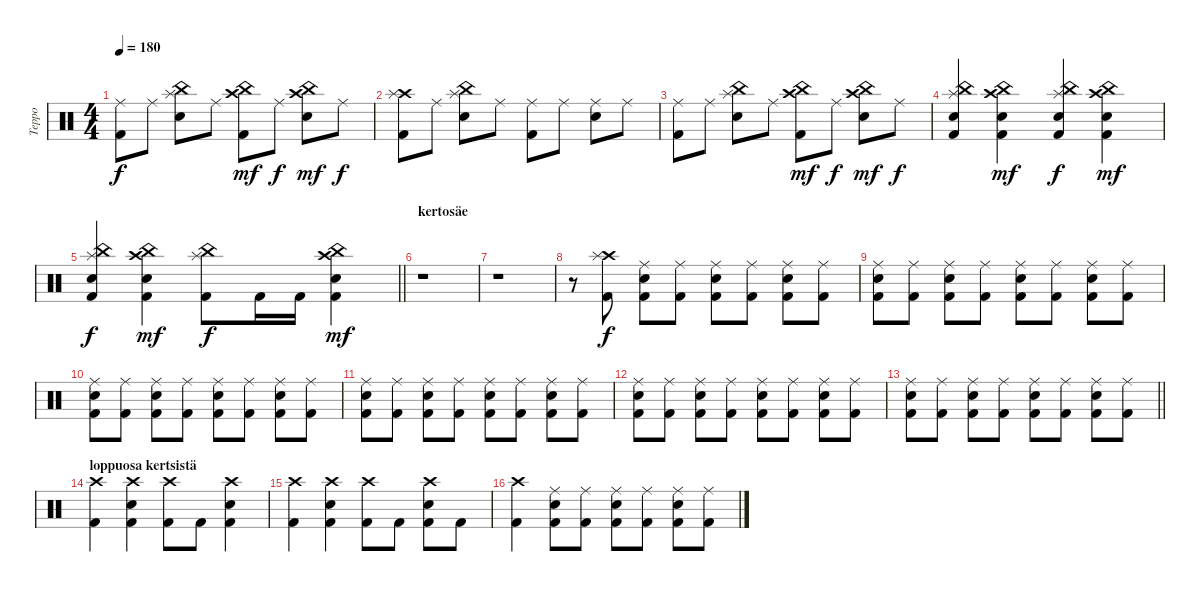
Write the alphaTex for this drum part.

\track ("Teppo" "Teppo") {instrument percussion}
\staff {score}
\articulation defaults
\ts (4 4)
\tempo 180
\clef neutral
\ks c
("Ride (middle)" "Kick (hit) 2").8{dy f} "Ride (middle)".8 ("China (hit)" "Splash (hit)" "Electric Snare (hit)").8 "Ride (middle)".8 ("China (hit)" "Crash high (hit)" "Kick (hit) 2").8{dy mf} "Ride (middle)".8{dy f} ("China (hit)" "Crash high (hit)" "Electric Snare (hit)").8{dy mf} "Ride (middle)".8{dy f} |
("Crash high (hit)" "Splash (hit)" "Kick (hit) 2").8 "Ride (middle)".8 ("China (hit)" "Splash (hit)" "Electric Snare (hit)").8 "Ride (middle)".8 ("Ride (middle)" "Kick (hit) 2").8 "Ride (middle)".8 ("Ride (middle)" "Electric Snare (hit)").8 "Ride (middle)".8 |
("Ride (middle)" "Kick (hit) 2").8 "Ride (middle)".8 ("China (hit)" "Splash (hit)" "Electric Snare (hit)").8 "Ride (middle)".8 ("China (hit)" "Crash high (hit)" "Kick (hit) 2").8{dy mf} "Ride (middle)".8{dy f} ("China (hit)" "Crash high (hit)" "Electric Snare (hit)").8{dy mf} "Ride (middle)".8{dy f} |
("China (hit)" "Splash (hit)" "Electric Snare (hit)" "Kick (hit) 2").4 ("China (hit)" "Crash high (hit)" "Electric Snare (hit)" "Kick (hit) 2").4{dy mf} ("China (hit)" "Splash (hit)" "Electric Snare (hit)" "Kick (hit) 2").4{dy f} ("China (hit)" "Crash high (hit)" "Electric Snare (hit)" "Kick (hit) 2").4{dy mf} |
\barLineRight lightlight
("China (hit)" "Splash (hit)" "Electric Snare (hit)" "Kick (hit) 2").4{dy f} ("China (hit)" "Crash high (hit)" "Electric Snare (hit)" "Kick (hit) 2").4{dy mf} ("China (hit)" "Splash (hit)" "Kick (hit) 2").8{dy f} "Kick (hit) 2".16 "Kick (hit) 2".16 ("China (hit)" "Crash high (hit)" "Electric Snare (hit)" "Kick (hit) 2").4{dy mf} |
\section ("" "kertosäe")
r.1 |
r.1 |
r.8 ("Crash high (hit)" "Splash (hit)" "Kick (hit) 2").8{dy f} ("Ride (middle)" "Electric Snare (hit)" "Kick (hit) 2").8 ("Ride (middle)" "Kick (hit) 2").8 ("Ride (middle)" "Electric Snare (hit)" "Kick (hit) 2").8 ("Ride (middle)" "Kick (hit) 2").8 ("Ride (middle)" "Electric Snare (hit)" "Kick (hit) 2").8 ("Ride (middle)" "Kick (hit) 2").8 |
("Ride (middle)" "Electric Snare (hit)" "Kick (hit) 2").8 ("Ride (middle)" "Kick (hit) 2").8 ("Ride (middle)" "Electric Snare (hit)" "Kick (hit) 2").8 ("Ride (middle)" "Kick (hit) 2").8 ("Ride (middle)" "Electric Snare (hit)" "Kick (hit) 2").8 ("Ride (middle)" "Kick (hit) 2").8 ("Ride (middle)" "Electric Snare (hit)" "Kick (hit) 2").8 ("Ride (middle)" "Kick (hit) 2").8 |
("Ride (middle)" "Electric Snare (hit)" "Kick (hit) 2").8 ("Ride (middle)" "Kick (hit) 2").8 ("Ride (middle)" "Electric Snare (hit)" "Kick (hit) 2").8 ("Ride (middle)" "Kick (hit) 2").8 ("Ride (middle)" "Electric Snare (hit)" "Kick (hit) 2").8 ("Ride (middle)" "Kick (hit) 2").8 ("Ride (middle)" "Electric Snare (hit)" "Kick (hit) 2").8 ("Ride (middle)" "Kick (hit) 2").8 |
("Ride (middle)" "Electric Snare (hit)" "Kick (hit) 2").8 ("Ride (middle)" "Kick (hit) 2").8 ("Ride (middle)" "Electric Snare (hit)" "Kick (hit) 2").8 ("Ride (middle)" "Kick (hit) 2").8 ("Ride (middle)" "Electric Snare (hit)" "Kick (hit) 2").8 ("Ride (middle)" "Kick (hit) 2").8 ("Ride (middle)" "Electric Snare (hit)" "Kick (hit) 2").8 ("Ride (middle)" "Kick (hit) 2").8 |
("Ride (middle)" "Electric Snare (hit)" "Kick (hit) 2").8 ("Ride (middle)" "Kick (hit) 2").8 ("Ride (middle)" "Electric Snare (hit)" "Kick (hit) 2").8 ("Ride (middle)" "Kick (hit) 2").8 ("Ride (middle)" "Electric Snare (hit)" "Kick (hit) 2").8 ("Ride (middle)" "Kick (hit) 2").8 ("Ride (middle)" "Electric Snare (hit)" "Kick (hit) 2").8 ("Ride (middle)" "Kick (hit) 2").8 |
\barLineRight lightlight
("Ride (middle)" "Electric Snare (hit)" "Kick (hit) 2").8 ("Ride (middle)" "Kick (hit) 2").8 ("Ride (middle)" "Electric Snare (hit)" "Kick (hit) 2").8 ("Ride (middle)" "Kick (hit) 2").8 ("Ride (middle)" "Electric Snare (hit)" "Kick (hit) 2").8 ("Ride (middle)" "Kick (hit) 2").8 ("Ride (middle)" "Electric Snare (hit)" "Kick (hit) 2").8 ("Ride (middle)" "Kick (hit) 2").8 |
\section ("" "loppuosa kertsistä")
("Crash high (hit)" "Kick (hit) 2").4 ("Crash high (hit)" "Electric Snare (hit)" "Kick (hit) 2").4 ("Crash high (hit)" "Kick (hit) 2").8 "Kick (hit) 2".8 ("Crash high (hit)" "Electric Snare (hit)" "Kick (hit) 2").4 |
("Crash high (hit)" "Kick (hit) 2").4 ("Crash high (hit)" "Electric Snare (hit)" "Kick (hit) 2").4 ("Crash high (hit)" "Kick (hit) 2").8 "Kick (hit) 2".8 ("Crash high (hit)" "Electric Snare (hit)" "Kick (hit) 2").8 "Kick (hit) 2".8 |
("Crash high (hit)" "Kick (hit) 2").4 ("Ride (middle)" "Electric Snare (hit)" "Kick (hit) 2").8 ("Ride (middle)" "Kick (hit) 2").8 ("Ride (middle)" "Electric Snare (hit)" "Kick (hit) 2").8 ("Ride (middle)" "Kick (hit) 2").8 ("Ride (middle)" "Electric Snare (hit)" "Kick (hit) 2").8 ("Ride (middle)" "Kick (hit) 2").8
